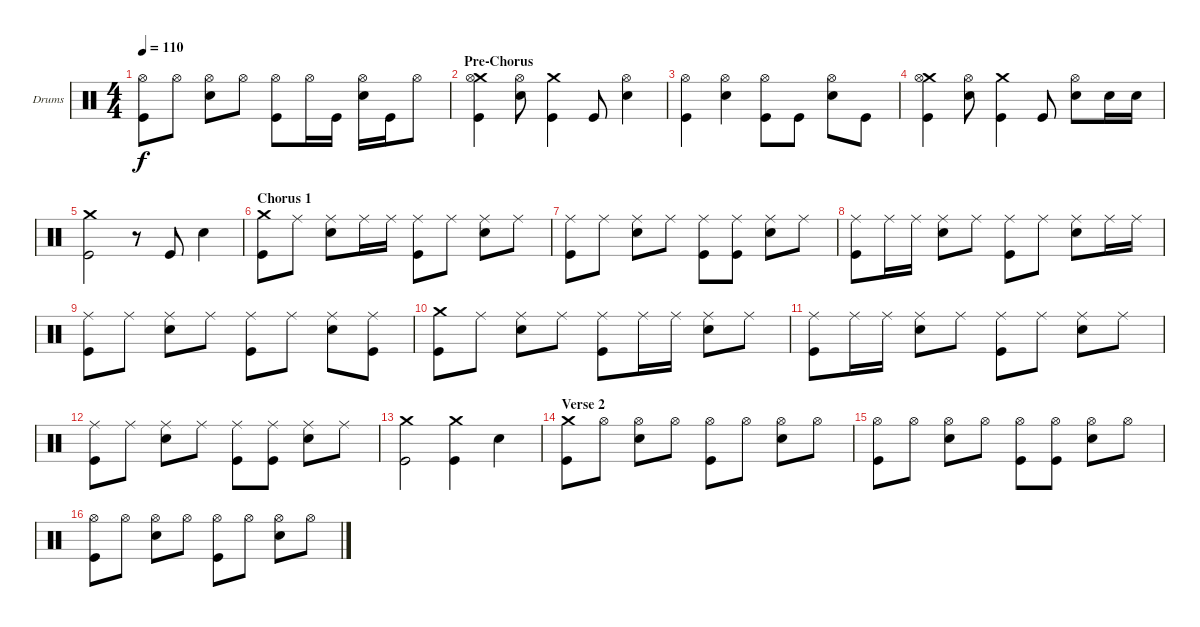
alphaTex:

\bracketExtendMode groupsimilarinstruments
\firstSystemTrackNameOrientation horizontal
\otherSystemsTrackNameOrientation horizontal
\track ("Drums" "Drums") {instrument percussion}
\staff {score}
\articulation defaults
\ts (4 4)
\tempo 110
\clef neutral
\ks c
("Hi-Hat (open)" "Kick (hit)").8{dy f} "Hi-Hat (open)".8 ("Hi-Hat (open)" "Snare (hit) 2").8 "Hi-Hat (open)".8 ("Hi-Hat (open)" "Kick (hit)").8 "Hi-Hat (open)".16 "Kick (hit)".16 ("Hi-Hat (open)" "Snare (hit) 2").16 "Kick (hit)".16 "Hi-Hat (open)".8 |
\section ("" "Pre-Chorus ")
("Crash medium (hit)" "Hi-Hat (open)" "Kick (hit)").4 ("Hi-Hat (open)" "Snare (hit) 2").8 ("Crash medium (hit)" "Kick (hit)").4 "Kick (hit)".8 ("Hi-Hat (open)" "Snare (hit) 2").4 |
("Hi-Hat (open)" "Kick (hit)").4 ("Hi-Hat (open)" "Snare (hit) 2").4 ("Hi-Hat (open)" "Kick (hit)").8 "Kick (hit)".8 ("Hi-Hat (open)" "Snare (hit) 2").8 "Kick (hit)".8 |
("Crash medium (hit)" "Hi-Hat (open)" "Kick (hit)").4 ("Hi-Hat (open)" "Snare (hit) 2").8 ("Crash medium (hit)" "Kick (hit)").4 "Kick (hit)".8 ("Hi-Hat (open)" "Snare (hit) 2").8 "Snare (hit) 2".16 "Snare (hit) 2".16 |
("Crash medium (hit)" "Kick (hit)").2 r.8 "Kick (hit)".8 "Snare (hit) 2".4 |
\section ("" "Chorus 1")
("Crash medium (hit)" "Kick (hit)").8 "Ride (middle)".8 ("Ride (middle)" "Snare (hit) 2").8 "Ride (middle)".16 "Ride (middle)".16 ("Ride (middle)" "Kick (hit)").8 "Ride (middle)".8 ("Ride (middle)" "Snare (hit) 2").8 "Ride (middle)".8 |
("Ride (middle)" "Kick (hit)").8 "Ride (middle)".8 ("Ride (middle)" "Snare (hit) 2").8 "Ride (middle)".8 ("Ride (middle)" "Kick (hit)").8 ("Ride (middle)" "Kick (hit)").8 ("Ride (middle)" "Snare (hit) 2").8 "Ride (middle)".8 |
("Ride (middle)" "Kick (hit)").8 "Ride (middle)".16 "Ride (middle)".16 ("Ride (middle)" "Snare (hit) 2").8 "Ride (middle)".8 ("Ride (middle)" "Kick (hit)").8 "Ride (middle)".8 ("Ride (middle)" "Snare (hit) 2").8 "Ride (middle)".16 "Ride (middle)".16 |
("Ride (middle)" "Kick (hit)").8 "Ride (middle)".8 ("Ride (middle)" "Snare (hit) 2").8 "Ride (middle)".8 ("Ride (middle)" "Kick (hit)").8 "Ride (middle)".8 ("Ride (middle)" "Snare (hit) 2").8 ("Ride (middle)" "Kick (hit)").8 |
("Crash medium (hit)" "Kick (hit)").8 "Ride (middle)".8 ("Ride (middle)" "Snare (hit) 2").8 "Ride (middle)".8 ("Ride (middle)" "Kick (hit)").8 "Ride (middle)".16 "Ride (middle)".16 ("Ride (middle)" "Snare (hit) 2").8 "Ride (middle)".8 |
("Ride (middle)" "Kick (hit)").8 "Ride (middle)".16 "Ride (middle)".16 ("Ride (middle)" "Snare (hit) 2").8 "Ride (middle)".8 ("Ride (middle)" "Kick (hit)").8 "Ride (middle)".8 ("Ride (middle)" "Snare (hit) 2").8 "Ride (middle)".8 |
("Ride (middle)" "Kick (hit)").8 "Ride (middle)".8 ("Ride (middle)" "Snare (hit) 2").8 "Ride (middle)".8 ("Ride (middle)" "Kick (hit)").8 ("Ride (middle)" "Kick (hit)").8 ("Ride (middle)" "Snare (hit) 2").8 "Ride (middle)".8 |
("Crash medium (hit)" "Kick (hit)").2 ("Crash medium (hit)" "Kick (hit)").4 "Snare (hit) 2".4 |
\section ("" "Verse 2")
("Crash medium (hit)" "Kick (hit)").8 "Hi-Hat (open)".8 ("Hi-Hat (open)" "Snare (hit) 2").8 "Hi-Hat (open)".8 ("Hi-Hat (open)" "Kick (hit)").8 "Hi-Hat (open)".8 ("Hi-Hat (open)" "Snare (hit) 2").8 "Hi-Hat (open)".8 |
("Hi-Hat (open)" "Kick (hit)").8 "Hi-Hat (open)".8 ("Hi-Hat (open)" "Snare (hit) 2").8 "Hi-Hat (open)".8 ("Hi-Hat (open)" "Kick (hit)").8 ("Hi-Hat (open)" "Kick (hit)").8 ("Hi-Hat (open)" "Snare (hit) 2").8 "Hi-Hat (open)".8 |
("Hi-Hat (open)" "Kick (hit)").8 "Hi-Hat (open)".8 ("Hi-Hat (open)" "Snare (hit) 2").8 "Hi-Hat (open)".8 ("Hi-Hat (open)" "Kick (hit)").8 "Hi-Hat (open)".8 ("Hi-Hat (open)" "Snare (hit) 2").8 "Hi-Hat (open)".8
